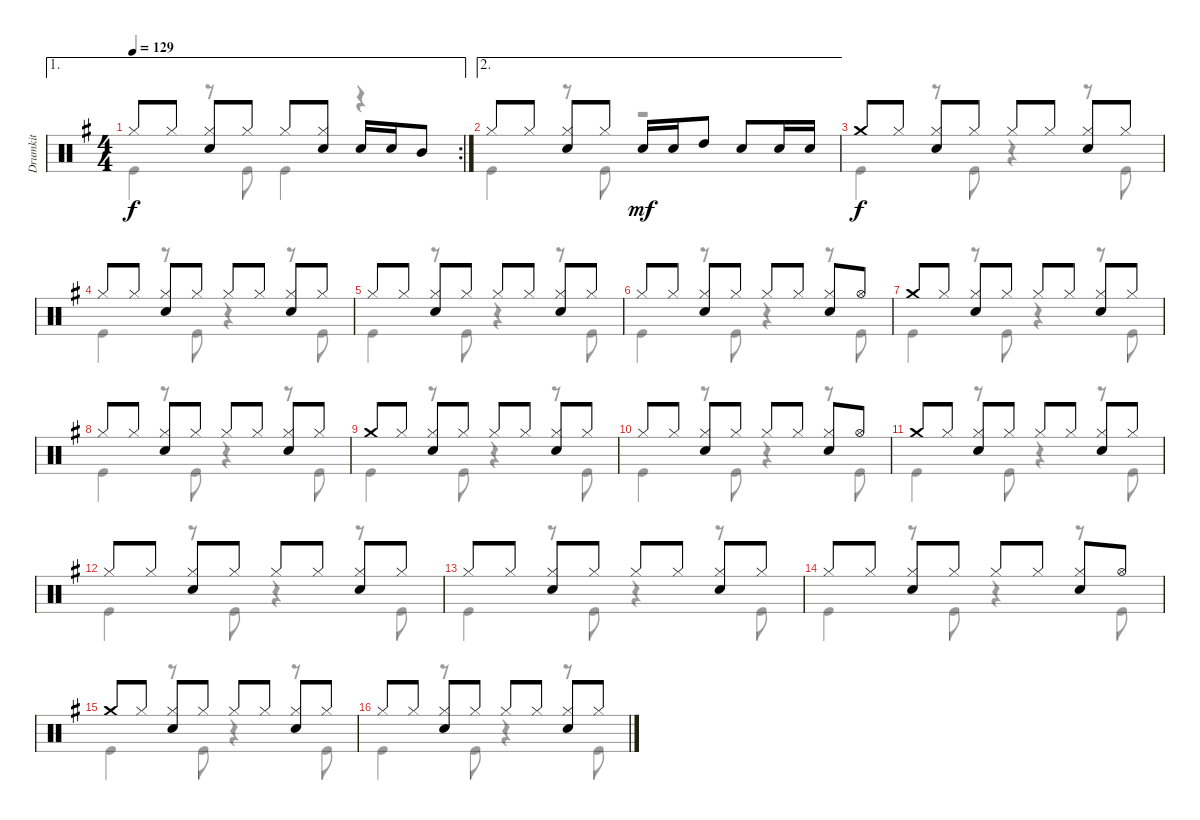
\track ("Drumkit" "Drumkit") {instrument percussion}
\staff {score}
\articulation defaults
\voice
\ae 1
\rc 2
\ts (4 4)
\tempo 129
\clef neutral
\ks g "Hi-Hat (closed)".8{dy f} "Hi-Hat (closed)".8
("Hi-Hat (closed)" "Snare (hit) 2").8 "Hi-Hat (closed)".8 "Hi-Hat (closed)".8 ("Snare (hit) 2" "Hi-Hat (closed)").8 "Snare (hit) 2".16 "Snare (hit) 2".16 "Mid Tom (hit)".8 |
\ae 2 "Hi-Hat (closed)".8 "Hi-Hat (closed)".8
("Hi-Hat (closed)" "Snare (hit) 2").8 "Hi-Hat (closed)".8 "Snare (hit) 2".16{dy mf} "Snare (hit) 2".16 "High Tom (hit)".8 "Snare (hit) 2".8 "Snare (hit) 2".16 "Snare (hit) 2".16 |
"Crash medium (hit)".8{dy f} "Hi-Hat (closed)".8 ("Hi-Hat (closed)" "Snare (hit) 2").8 "Hi-Hat (closed)".8 "Hi-Hat (closed)".8 "Hi-Hat (closed)".8 ("Hi-Hat (closed)" "Snare (hit) 2").8 "Hi-Hat (closed)".8 |
"Hi-Hat (closed)".8 "Hi-Hat (closed)".8 ("Hi-Hat (closed)" "Snare (hit) 2").8 "Hi-Hat (closed)".8 "Hi-Hat (closed)".8 "Hi-Hat (closed)".8 ("Hi-Hat (closed)" "Snare (hit) 2").8 "Hi-Hat (closed)".8 |
"Hi-Hat (closed)".8 "Hi-Hat (closed)".8 ("Hi-Hat (closed)" "Snare (hit) 2").8 "Hi-Hat (closed)".8 "Hi-Hat (closed)".8 "Hi-Hat (closed)".8 ("Hi-Hat (closed)" "Snare (hit) 2").8 "Hi-Hat (closed)".8 |
"Hi-Hat (closed)".8 "Hi-Hat (closed)".8 ("Hi-Hat (closed)" "Snare (hit) 2").8 "Hi-Hat (closed)".8 "Hi-Hat (closed)".8 "Hi-Hat (closed)".8 ("Hi-Hat (closed)" "Snare (hit) 2").8 "Hi-Hat (open)".8 |
"Crash medium (hit)".8 "Hi-Hat (closed)".8 ("Hi-Hat (closed)" "Snare (hit) 2").8 "Hi-Hat (closed)".8 "Hi-Hat (closed)".8 "Hi-Hat (closed)".8 ("Hi-Hat (closed)" "Snare (hit) 2").8 "Hi-Hat (closed)".8 |
"Hi-Hat (closed)".8 "Hi-Hat (closed)".8 ("Hi-Hat (closed)" "Snare (hit) 2").8 "Hi-Hat (closed)".8 "Hi-Hat (closed)".8 "Hi-Hat (closed)".8 ("Hi-Hat (closed)" "Snare (hit) 2").8 "Hi-Hat (closed)".8 |
"Crash medium (hit)".8 "Hi-Hat (closed)".8 ("Hi-Hat (closed)" "Snare (hit) 2").8 "Hi-Hat (closed)".8 "Hi-Hat (closed)".8 "Hi-Hat (closed)".8 ("Hi-Hat (closed)" "Snare (hit) 2").8 "Hi-Hat (closed)".8 |
"Hi-Hat (closed)".8 "Hi-Hat (closed)".8 ("Hi-Hat (closed)" "Snare (hit) 2").8 "Hi-Hat (closed)".8 "Hi-Hat (closed)".8 "Hi-Hat (closed)".8 ("Hi-Hat (closed)" "Snare (hit) 2").8 "Hi-Hat (open)".8 |
"Crash medium (hit)".8 "Hi-Hat (closed)".8 ("Hi-Hat (closed)" "Snare (hit) 2").8 "Hi-Hat (closed)".8 "Hi-Hat (closed)".8 "Hi-Hat (closed)".8 ("Hi-Hat (closed)" "Snare (hit) 2").8 "Hi-Hat (closed)".8 |
"Hi-Hat (closed)".8 "Hi-Hat (closed)".8 ("Hi-Hat (closed)" "Snare (hit) 2").8 "Hi-Hat (closed)".8 "Hi-Hat (closed)".8 "Hi-Hat (closed)".8 ("Hi-Hat (closed)" "Snare (hit) 2").8 "Hi-Hat (closed)".8 |
"Hi-Hat (closed)".8 "Hi-Hat (closed)".8 ("Hi-Hat (closed)" "Snare (hit) 2").8 "Hi-Hat (closed)".8 "Hi-Hat (closed)".8 "Hi-Hat (closed)".8 ("Hi-Hat (closed)" "Snare (hit) 2").8 "Hi-Hat (closed)".8 |
"Hi-Hat (closed)".8 "Hi-Hat (closed)".8 ("Hi-Hat (closed)" "Snare (hit) 2").8 "Hi-Hat (closed)".8 "Hi-Hat (closed)".8 "Hi-Hat (closed)".8 ("Hi-Hat (closed)" "Snare (hit) 2").8 "Hi-Hat (open)".8 |
"Crash medium (hit)".8 "Hi-Hat (closed)".8 ("Hi-Hat (closed)" "Snare (hit) 2").8 "Hi-Hat (closed)".8 "Hi-Hat (closed)".8 "Hi-Hat (closed)".8 ("Hi-Hat (closed)" "Snare (hit) 2").8 "Hi-Hat (closed)".8 |
"Hi-Hat (closed)".8 "Hi-Hat (closed)".8 ("Hi-Hat (closed)" "Snare (hit) 2").8 "Hi-Hat (closed)".8 "Hi-Hat (closed)".8 "Hi-Hat (closed)".8 ("Hi-Hat (closed)" "Snare (hit) 2").8 "Hi-Hat (closed)".8
\voice
\clef neutral
\ottava regular
\simile none
\ks g "Kick (hit)".4{dy f}
r.8 "Kick (hit)".8 "Kick (hit)".4 r.4 |
"Kick (hit)".4 r.8 "Kick (hit)".8 r.2 |
"Kick (hit)".4 r.8 "Kick (hit)".8 r.4 r.8 "Kick (hit)".8 |
"Kick (hit)".4 r.8 "Kick (hit)".8 r.4 r.8 "Kick (hit)".8 |
"Kick (hit)".4 r.8 "Kick (hit)".8 r.4 r.8 "Kick (hit)".8 |
"Kick (hit)".4 r.8 "Kick (hit)".8 r.4 r.8 "Kick (hit)".8 |
"Kick (hit)".4 r.8 "Kick (hit)".8 r.4 r.8 "Kick (hit)".8 |
"Kick (hit)".4 r.8 "Kick (hit)".8 r.4 r.8 "Kick (hit)".8 |
"Kick (hit)".4 r.8 "Kick (hit)".8 r.4 r.8 "Kick (hit)".8 |
"Kick (hit)".4 r.8 "Kick (hit)".8 r.4 r.8 "Kick (hit)".8 |
"Kick (hit)".4 r.8 "Kick (hit)".8 r.4 r.8 "Kick (hit)".8 |
"Kick (hit)".4 r.8 "Kick (hit)".8 r.4 r.8 "Kick (hit)".8 |
"Kick (hit)".4 r.8 "Kick (hit)".8 r.4 r.8 "Kick (hit)".8 |
"Kick (hit)".4 r.8 "Kick (hit)".8 r.4 r.8 "Kick (hit)".8 |
"Kick (hit)".4 r.8 "Kick (hit)".8 r.4 r.8 "Kick (hit)".8 |
"Kick (hit)".4 r.8 "Kick (hit)".8 r.4 r.8 "Kick (hit)".8
